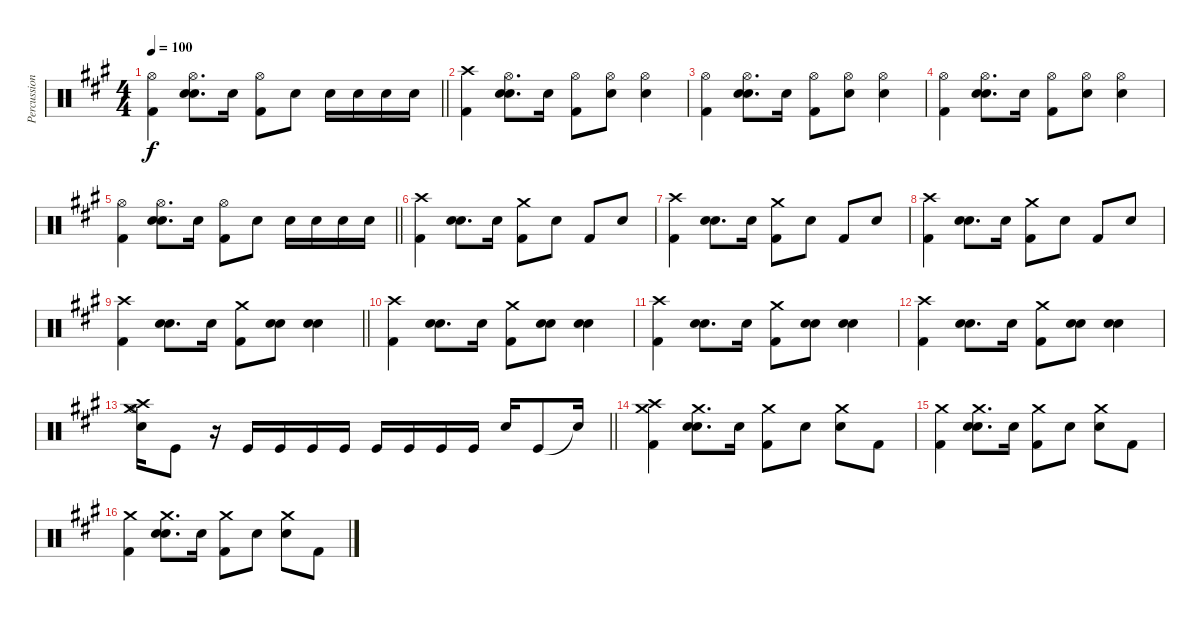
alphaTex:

\track ("Percussion" "Percussion") {instrument percussion}
\staff {score}
\articulation defaults
\ts (4 4)
\tempo 100
\clef neutral
\barLineRight lightlight
\ks f#minor
("Hi-Hat (open)" "Kick (hit) 2").4{dy f} ("Hi-Hat (open)" "Snare (hit) 2" "Snare (hit) 2").8{d} "Snare (hit) 2".16 ("Hi-Hat (open)" "Kick (hit) 2").8 "Snare (hit) 2".8 "Snare (hit) 2".16 "Snare (hit) 2".16 "Snare (hit) 2".16 "Snare (hit) 2".16 |
("Crash high (hit)" "Kick (hit) 2").4 ("Hi-Hat (open)" "Snare (hit) 2" "Snare (hit) 2").8{d} "Snare (hit) 2".16 ("Hi-Hat (open)" "Kick (hit) 2").8 ("Hi-Hat (open)" "Snare (hit) 2").8 ("Hi-Hat (open)" "Snare (hit) 2").4 |
("Hi-Hat (open)" "Kick (hit) 2").4 ("Hi-Hat (open)" "Snare (hit) 2" "Snare (hit) 2").8{d} "Snare (hit) 2".16 ("Hi-Hat (open)" "Kick (hit) 2").8 ("Hi-Hat (open)" "Snare (hit) 2").8 ("Hi-Hat (open)" "Snare (hit) 2").4 |
("Hi-Hat (open)" "Kick (hit) 2").4 ("Hi-Hat (open)" "Snare (hit) 2" "Snare (hit) 2").8{d} "Snare (hit) 2".16 ("Hi-Hat (open)" "Kick (hit) 2").8 ("Hi-Hat (open)" "Snare (hit) 2").8 ("Hi-Hat (open)" "Snare (hit) 2").4 |
\barLineRight lightlight
("Hi-Hat (open)" "Kick (hit) 2").4 ("Hi-Hat (open)" "Snare (hit) 2" "Snare (hit) 2").8{d} "Snare (hit) 2".16 ("Hi-Hat (open)" "Kick (hit) 2").8 "Snare (hit) 2".8 "Snare (hit) 2".16 "Snare (hit) 2".16 "Snare (hit) 2".16 "Snare (hit) 2".16 |
("Crash high (hit)" "Kick (hit) 2").4 ("Snare (hit) 2" "Snare (hit) 2").8{d} "Snare (hit) 2".16 ("Crash medium (hit)" "Kick (hit) 2").8 "Snare (hit) 2".8 "Kick (hit) 2".8 "Snare (hit) 2".8 |
("Crash high (hit)" "Kick (hit) 2").4 ("Snare (hit) 2" "Snare (hit) 2").8{d} "Snare (hit) 2".16 ("Crash medium (hit)" "Kick (hit) 2").8 "Snare (hit) 2".8 "Kick (hit) 2".8 "Snare (hit) 2".8 |
("Crash high (hit)" "Kick (hit) 2").4 ("Snare (hit) 2" "Snare (hit) 2").8{d} "Snare (hit) 2".16 ("Crash medium (hit)" "Kick (hit) 2").8 "Snare (hit) 2".8 "Kick (hit) 2".8 "Snare (hit) 2".8 |
\barLineRight lightlight
("Crash high (hit)" "Kick (hit) 2").4 ("Snare (hit) 2" "Snare (hit) 2").8{d} "Snare (hit) 2".16 ("Crash medium (hit)" "Kick (hit) 2").8 ("Snare (hit) 2" "Snare (hit) 2").8 ("Snare (hit) 2" "Snare (hit) 2").4 |
("Crash high (hit)" "Kick (hit) 2").4 ("Snare (hit) 2" "Snare (hit) 2").8{d} "Snare (hit) 2".16 ("Crash medium (hit)" "Kick (hit) 2").8 ("Snare (hit) 2" "Snare (hit) 2").8 ("Snare (hit) 2" "Snare (hit) 2").4 |
("Crash high (hit)" "Kick (hit) 2").4 ("Snare (hit) 2" "Snare (hit) 2").8{d} "Snare (hit) 2".16 ("Crash medium (hit)" "Kick (hit) 2").8 ("Snare (hit) 2" "Snare (hit) 2").8 ("Snare (hit) 2" "Snare (hit) 2").4 |
("Crash high (hit)" "Kick (hit) 2").4 ("Snare (hit) 2" "Snare (hit) 2").8{d} "Snare (hit) 2".16 ("Crash medium (hit)" "Kick (hit) 2").8 ("Snare (hit) 2" "Snare (hit) 2").8 ("Snare (hit) 2" "Snare (hit) 2").4 |
\barLineRight lightlight
("Snare (hit) 2" "Hi-Hat (open)" "Crash high (hit)" "Crash medium (hit)").16 "Kick (hit)".8 r.16 "Kick (hit)".16 "Kick (hit)".16 "Kick (hit)".16 "Kick (hit)".16 "Kick (hit)".16 "Kick (hit)".16 "Kick (hit)".16 "Kick (hit)".16 "Snare (hit) 2".16 "Kick (hit)".8 "Snare (hit)"{t}.16 |
("Crash medium (hit)" "Crash high (hit)" "Kick (hit) 2").4 ("Crash medium (hit)" "Snare (hit) 2" "Snare (hit) 2").8{d} "Snare (hit) 2".16 ("Crash medium (hit)" "Kick (hit) 2").8 "Snare (hit) 2".8 ("Crash medium (hit)" "Snare (hit) 2").8 "Kick (hit) 2".8 |
("Crash medium (hit)" "Kick (hit) 2").4 ("Crash medium (hit)" "Snare (hit) 2" "Snare (hit) 2").8{d} "Snare (hit) 2".16 ("Crash medium (hit)" "Kick (hit) 2").8 "Snare (hit) 2".8 ("Crash medium (hit)" "Snare (hit) 2").8 "Kick (hit) 2".8 |
("Crash medium (hit)" "Kick (hit) 2").4 ("Crash medium (hit)" "Snare (hit) 2" "Snare (hit) 2").8{d} "Snare (hit) 2".16 ("Crash medium (hit)" "Kick (hit) 2").8 "Snare (hit) 2".8 ("Crash medium (hit)" "Snare (hit) 2").8 "Kick (hit) 2".8
